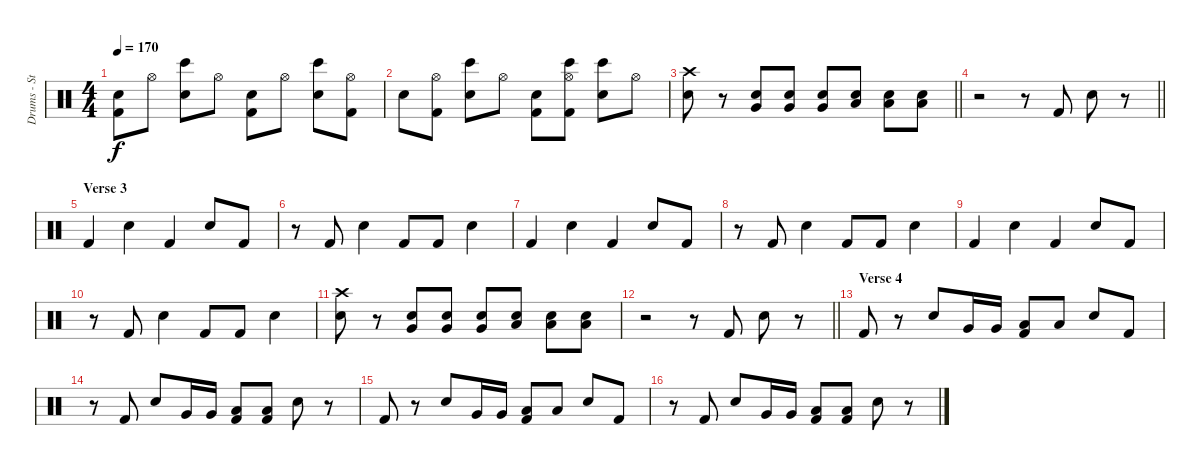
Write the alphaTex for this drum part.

\track ("Drums - Steeve" "Drums - St") {instrument percussion}
\staff {score}
\articulation defaults
\ts (4 4)
\tempo 170
\clef neutral
\ks c
("Kick (hit) 2" "Electric Snare (hit)").8{dy f} "Hi-Hat (open)".8 ("Electric Snare (hit)" "Bongo High (hit)").8 "Hi-Hat (open)".8 ("Kick (hit) 2" "Electric Snare (hit)").8 "Hi-Hat (open)".8 ("Electric Snare (hit)" "Bongo High (hit)").8 ("Hi-Hat (open)" "Kick (hit) 2").8 |
"Electric Snare (hit)".8 ("Hi-Hat (open)" "Kick (hit) 2").8 ("Electric Snare (hit)" "Bongo High (hit)").8 "Hi-Hat (open)".8 ("Kick (hit) 2" "Electric Snare (hit)").8 ("Hi-Hat (open)" "Kick (hit) 2" "Bongo High (hit)").8 ("Electric Snare (hit)" "Bongo High (hit)").8 "Hi-Hat (open)".8 |
\barLineRight lightlight
("Crash high (hit)" "Electric Snare (hit)").8 r.8 ("Electric Snare (hit)" "Very Low Tom (hit)").8 ("Electric Snare (hit)" "Very Low Tom (hit)").8 ("Electric Snare (hit)" "Very Low Tom (hit)").8 ("Electric Snare (hit)" "Low Floor Tom (hit)").8 ("Electric Snare (hit)" "Low Floor Tom (hit)").8 ("Electric Snare (hit)" "Low Floor Tom (hit)").8 |
\barLineRight lightlight
r.2 r.8 "Kick (hit) 2".8 "Electric Snare (hit)".8 r.8 |
\section ("" "Verse 3")
"Kick (hit) 2".4 "Electric Snare (hit)".4 "Kick (hit) 2".4 "Electric Snare (hit)".8 "Kick (hit) 2".8 |
r.8 "Kick (hit) 2".8 "Electric Snare (hit)".4 "Kick (hit) 2".8 "Kick (hit) 2".8 "Electric Snare (hit)".4 |
"Kick (hit) 2".4 "Electric Snare (hit)".4 "Kick (hit) 2".4 "Electric Snare (hit)".8 "Kick (hit) 2".8 |
r.8 "Kick (hit) 2".8 "Electric Snare (hit)".4 "Kick (hit) 2".8 "Kick (hit) 2".8 "Electric Snare (hit)".4 |
"Kick (hit) 2".4 "Electric Snare (hit)".4 "Kick (hit) 2".4 "Electric Snare (hit)".8 "Kick (hit) 2".8 |
r.8 "Kick (hit) 2".8 "Electric Snare (hit)".4 "Kick (hit) 2".8 "Kick (hit) 2".8 "Electric Snare (hit)".4 |
("Crash high (hit)" "Electric Snare (hit)").8 r.8 ("Electric Snare (hit)" "Very Low Tom (hit)").8 ("Electric Snare (hit)" "Very Low Tom (hit)").8 ("Electric Snare (hit)" "Very Low Tom (hit)").8 ("Electric Snare (hit)" "Low Floor Tom (hit)").8 ("Electric Snare (hit)" "Low Floor Tom (hit)").8 ("Electric Snare (hit)" "Low Floor Tom (hit)").8 |
\barLineRight lightlight
r.2 r.8 "Kick (hit) 2".8 "Electric Snare (hit)".8 r.8 |
\section ("" "Verse 4")
"Kick (hit) 2".8 r.8 "Electric Snare (hit)".8 "Very Low Tom (hit)".16 "Very Low Tom (hit)".16 ("Kick (hit) 2" "Low Floor Tom (hit)").8 "Low Floor Tom (hit)".8 "Electric Snare (hit)".8 "Kick (hit) 2".8 |
r.8 "Kick (hit) 2".8 "Electric Snare (hit)".8 "Very Low Tom (hit)".16 "Very Low Tom (hit)".16 ("Kick (hit) 2" "Low Floor Tom (hit)").8 ("Kick (hit) 2" "Low Floor Tom (hit)").8 "Electric Snare (hit)".8 r.8 |
"Kick (hit) 2".8 r.8 "Electric Snare (hit)".8 "Very Low Tom (hit)".16 "Very Low Tom (hit)".16 ("Kick (hit) 2" "Low Floor Tom (hit)").8 "Low Floor Tom (hit)".8 "Electric Snare (hit)".8 "Kick (hit) 2".8 |
r.8 "Kick (hit) 2".8 "Electric Snare (hit)".8 "Very Low Tom (hit)".16 "Very Low Tom (hit)".16 ("Kick (hit) 2" "Low Floor Tom (hit)").8 ("Kick (hit) 2" "Low Floor Tom (hit)").8 "Electric Snare (hit)".8 r.8
